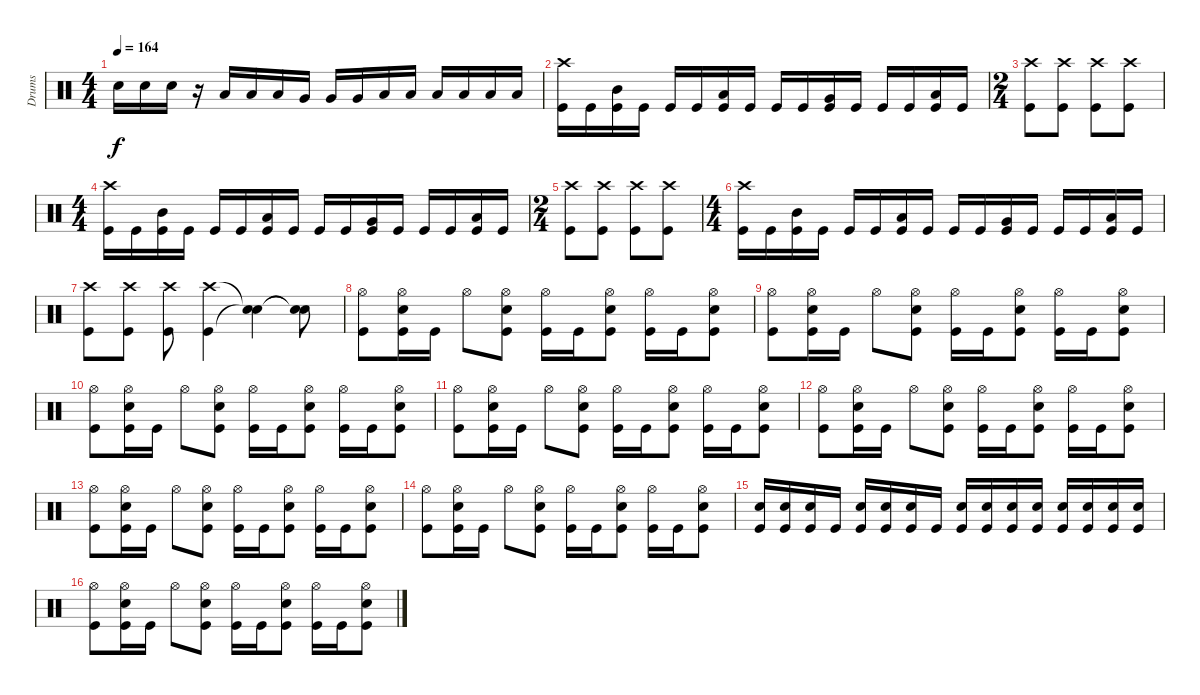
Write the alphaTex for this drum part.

\track ("Drums" "Drums") {instrument percussion}
\staff {score}
\articulation defaults
\ts (4 4)
\tempo 164
\clef neutral
\ks c "Snare (hit) 2".16{dy f} "Snare (hit) 2".16 "Snare (hit) 2".16
r.16 "Low Tom (hit)".16 "Low Tom (hit)".16 "Low Tom (hit)".16 "Very Low Tom (hit)".16 "Very Low Tom (hit)".16 "Very Low Tom (hit)".16 "Low Floor Tom (hit)".16 "Low Floor Tom (hit)".16 "Low Floor Tom (hit)".16 "Low Floor Tom (hit)".16 "Low Floor Tom (hit)".16 "Low Floor Tom (hit)".16 |
("Crash high (hit)" "Kick (hit)").16 "Kick (hit)".16 ("Mid Tom (hit)" "Kick (hit)").16 "Kick (hit)".16 "Kick (hit)".16 "Kick (hit)".16 ("Low Tom (hit)" "Kick (hit)").16 "Kick (hit)".16 "Kick (hit)".16 "Kick (hit)".16 ("Very Low Tom (hit)" "Kick (hit)").16 "Kick (hit)".16 "Kick (hit)".16 "Kick (hit)".16 ("Low Floor Tom (hit)" "Kick (hit)").16 "Kick (hit)".16 |
\ts (2 4)
("Crash high (hit)" "Kick (hit)").8 ("Crash high (hit)" "Kick (hit)").8 ("Crash high (hit)" "Kick (hit)").8 ("Crash high (hit)" "Kick (hit)").8 |
\ts (4 4)
("Crash high (hit)" "Kick (hit)").16 "Kick (hit)".16 ("Mid Tom (hit)" "Kick (hit)").16 "Kick (hit)".16 "Kick (hit)".16 "Kick (hit)".16 ("Low Tom (hit)" "Kick (hit)").16 "Kick (hit)".16 "Kick (hit)".16 "Kick (hit)".16 ("Very Low Tom (hit)" "Kick (hit)").16 "Kick (hit)".16 "Kick (hit)".16 "Kick (hit)".16 ("Low Floor Tom (hit)" "Kick (hit)").16 "Kick (hit)".16 |
\ts (2 4)
("Crash high (hit)" "Kick (hit)").8 ("Crash high (hit)" "Kick (hit)").8 ("Crash high (hit)" "Kick (hit)").8 ("Crash high (hit)" "Kick (hit)").8 |
\ts (4 4)
("Crash high (hit)" "Kick (hit)").16 "Kick (hit)".16 ("Mid Tom (hit)" "Kick (hit)").16 "Kick (hit)".16 "Kick (hit)".16 "Kick (hit)".16 ("Low Tom (hit)" "Kick (hit)").16 "Kick (hit)".16 "Kick (hit)".16 "Kick (hit)".16 ("Very Low Tom (hit)" "Kick (hit)").16 "Kick (hit)".16 "Kick (hit)".16 "Kick (hit)".16 ("Low Floor Tom (hit)" "Kick (hit)").16 "Kick (hit)".16 |
("Crash high (hit)" "Kick (hit)").8 ("Crash high (hit)" "Kick (hit)").8 ("Crash high (hit)" "Kick (hit)").8 ("Crash high (hit)" "Kick (hit)").4 ("Snare (hit)"{t} "Snare (hit)"{t}).4 ("Snare (hit)"{t} "Snare (hit)"{t}).8 |
("Hi-Hat (open)" "Kick (hit)").8 ("Hi-Hat (open)" "Snare (hit) 2" "Kick (hit)").16 "Kick (hit)".16 "Hi-Hat (open)".8 ("Hi-Hat (open)" "Snare (hit) 2" "Kick (hit)").8 ("Hi-Hat (open)" "Kick (hit)").16 "Kick (hit)".16 ("Hi-Hat (open)" "Snare (hit) 2" "Kick (hit)").8 ("Hi-Hat (open)" "Kick (hit)").16 "Kick (hit)".16 ("Hi-Hat (open)" "Snare (hit) 2" "Kick (hit)").8 |
("Hi-Hat (open)" "Kick (hit)").8 ("Hi-Hat (open)" "Snare (hit) 2" "Kick (hit)").16 "Kick (hit)".16 "Hi-Hat (open)".8 ("Hi-Hat (open)" "Snare (hit) 2" "Kick (hit)").8 ("Hi-Hat (open)" "Kick (hit)").16 "Kick (hit)".16 ("Hi-Hat (open)" "Snare (hit) 2" "Kick (hit)").8 ("Hi-Hat (open)" "Kick (hit)").16 "Kick (hit)".16 ("Hi-Hat (open)" "Snare (hit) 2" "Kick (hit)").8 |
("Hi-Hat (open)" "Kick (hit)").8 ("Hi-Hat (open)" "Snare (hit) 2" "Kick (hit)").16 "Kick (hit)".16 "Hi-Hat (open)".8 ("Hi-Hat (open)" "Snare (hit) 2" "Kick (hit)").8 ("Hi-Hat (open)" "Kick (hit)").16 "Kick (hit)".16 ("Hi-Hat (open)" "Snare (hit) 2" "Kick (hit)").8 ("Hi-Hat (open)" "Kick (hit)").16 "Kick (hit)".16 ("Hi-Hat (open)" "Snare (hit) 2" "Kick (hit)").8 |
("Hi-Hat (open)" "Kick (hit)").8 ("Hi-Hat (open)" "Snare (hit) 2" "Kick (hit)").16 "Kick (hit)".16 "Hi-Hat (open)".8 ("Hi-Hat (open)" "Snare (hit) 2" "Kick (hit)").8 ("Hi-Hat (open)" "Kick (hit)").16 "Kick (hit)".16 ("Hi-Hat (open)" "Snare (hit) 2" "Kick (hit)").8 ("Hi-Hat (open)" "Kick (hit)").16 "Kick (hit)".16 ("Hi-Hat (open)" "Snare (hit) 2" "Kick (hit)").8 |
("Hi-Hat (open)" "Kick (hit)").8 ("Hi-Hat (open)" "Snare (hit) 2" "Kick (hit)").16 "Kick (hit)".16 "Hi-Hat (open)".8 ("Hi-Hat (open)" "Snare (hit) 2" "Kick (hit)").8 ("Hi-Hat (open)" "Kick (hit)").16 "Kick (hit)".16 ("Hi-Hat (open)" "Snare (hit) 2" "Kick (hit)").8 ("Hi-Hat (open)" "Kick (hit)").16 "Kick (hit)".16 ("Hi-Hat (open)" "Snare (hit) 2" "Kick (hit)").8 |
("Hi-Hat (open)" "Kick (hit)").8 ("Hi-Hat (open)" "Snare (hit) 2" "Kick (hit)").16 "Kick (hit)".16 "Hi-Hat (open)".8 ("Hi-Hat (open)" "Snare (hit) 2" "Kick (hit)").8 ("Hi-Hat (open)" "Kick (hit)").16 "Kick (hit)".16 ("Hi-Hat (open)" "Snare (hit) 2" "Kick (hit)").8 ("Hi-Hat (open)" "Kick (hit)").16 "Kick (hit)".16 ("Hi-Hat (open)" "Snare (hit) 2" "Kick (hit)").8 |
("Hi-Hat (open)" "Kick (hit)").8 ("Hi-Hat (open)" "Snare (hit) 2" "Kick (hit)").16 "Kick (hit)".16 "Hi-Hat (open)".8 ("Hi-Hat (open)" "Snare (hit) 2" "Kick (hit)").8 ("Hi-Hat (open)" "Kick (hit)").16 "Kick (hit)".16 ("Hi-Hat (open)" "Snare (hit) 2" "Kick (hit)").8 ("Hi-Hat (open)" "Kick (hit)").16 "Kick (hit)".16 ("Hi-Hat (open)" "Snare (hit) 2" "Kick (hit)").8 |
("Snare (hit) 2" "Kick (hit)").16 ("Snare (hit) 2" "Kick (hit)").16 ("Snare (hit) 2" "Kick (hit)").16 "Kick (hit)".16 ("Snare (hit) 2" "Kick (hit)").16 ("Snare (hit) 2" "Kick (hit)").16 ("Snare (hit) 2" "Kick (hit)").16 "Kick (hit)".16 ("Snare (hit) 2" "Kick (hit)").16 ("Snare (hit) 2" "Kick (hit)").16 ("Snare (hit) 2" "Kick (hit)").16 ("Snare (hit) 2" "Kick (hit)").16 ("Snare (hit) 2" "Kick (hit)").16 ("Snare (hit) 2" "Kick (hit)").16 ("Snare (hit) 2" "Kick (hit)").16 ("Snare (hit) 2" "Kick (hit)").16 |
("Hi-Hat (open)" "Kick (hit)").8 ("Hi-Hat (open)" "Snare (hit) 2" "Kick (hit)").16 "Kick (hit)".16 "Hi-Hat (open)".8 ("Hi-Hat (open)" "Snare (hit) 2" "Kick (hit)").8 ("Hi-Hat (open)" "Kick (hit)").16 "Kick (hit)".16 ("Hi-Hat (open)" "Snare (hit) 2" "Kick (hit)").8 ("Hi-Hat (open)" "Kick (hit)").16 "Kick (hit)".16 ("Hi-Hat (open)" "Snare (hit) 2" "Kick (hit)").8
